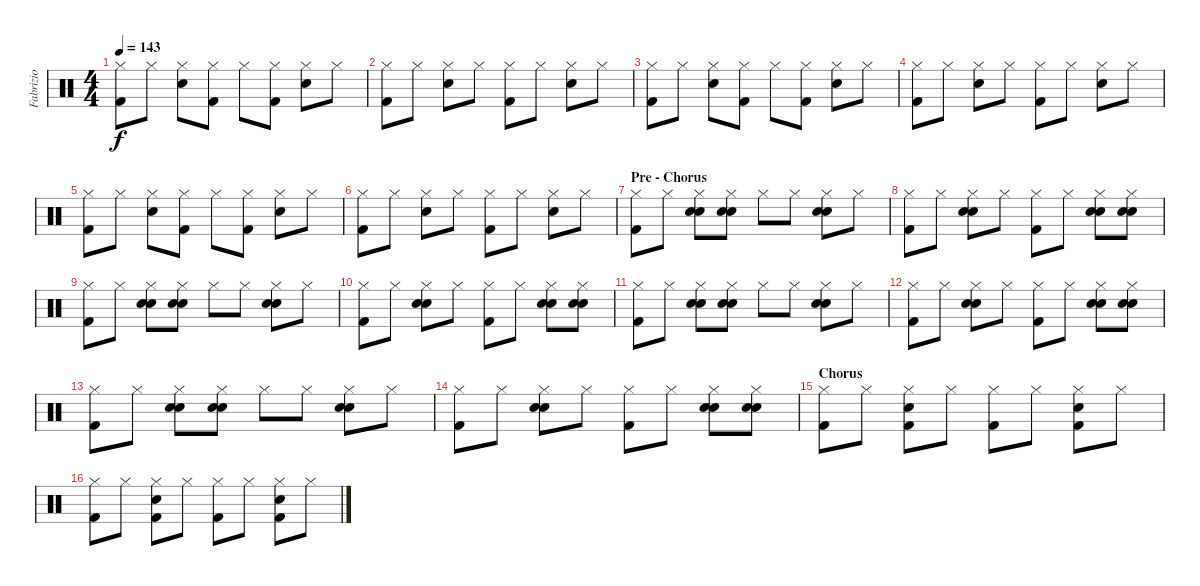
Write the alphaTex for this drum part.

\track ("Fabrizio" "Fabrizio") {instrument percussion}
\staff {score}
\articulation defaults
\ts (4 4)
\tempo 143
\clef neutral
\ks c
("Hi-Hat (closed)" "Kick (hit) 2").8{dy f} "Hi-Hat (closed)".8 ("Hi-Hat (closed)" "Electric Snare (hit)").8 ("Hi-Hat (closed)" "Kick (hit) 2").8 "Hi-Hat (closed)".8 ("Hi-Hat (closed)" "Kick (hit) 2").8 ("Hi-Hat (closed)" "Electric Snare (hit)").8 "Hi-Hat (closed)".8 |
("Hi-Hat (closed)" "Kick (hit) 2").8 "Hi-Hat (closed)".8 ("Hi-Hat (closed)" "Electric Snare (hit)").8 "Hi-Hat (closed)".8 ("Hi-Hat (closed)" "Kick (hit) 2").8 "Hi-Hat (closed)".8 ("Hi-Hat (closed)" "Electric Snare (hit)").8 "Hi-Hat (closed)".8 |
("Hi-Hat (closed)" "Kick (hit) 2").8 "Hi-Hat (closed)".8 ("Hi-Hat (closed)" "Electric Snare (hit)").8 ("Hi-Hat (closed)" "Kick (hit) 2").8 "Hi-Hat (closed)".8 ("Hi-Hat (closed)" "Kick (hit) 2").8 ("Hi-Hat (closed)" "Electric Snare (hit)").8 "Hi-Hat (closed)".8 |
("Hi-Hat (closed)" "Kick (hit) 2").8 "Hi-Hat (closed)".8 ("Hi-Hat (closed)" "Electric Snare (hit)").8 "Hi-Hat (closed)".8 ("Hi-Hat (closed)" "Kick (hit) 2").8 "Hi-Hat (closed)".8 ("Hi-Hat (closed)" "Electric Snare (hit)").8 "Hi-Hat (closed)".8 |
("Hi-Hat (closed)" "Kick (hit) 2").8 "Hi-Hat (closed)".8 ("Hi-Hat (closed)" "Electric Snare (hit)").8 ("Hi-Hat (closed)" "Kick (hit) 2").8 "Hi-Hat (closed)".8 ("Hi-Hat (closed)" "Kick (hit) 2").8 ("Hi-Hat (closed)" "Electric Snare (hit)").8 "Hi-Hat (closed)".8 |
("Hi-Hat (closed)" "Kick (hit) 2").8 "Hi-Hat (closed)".8 ("Hi-Hat (closed)" "Electric Snare (hit)").8 "Hi-Hat (closed)".8 ("Hi-Hat (closed)" "Kick (hit) 2").8 "Hi-Hat (closed)".8 ("Hi-Hat (closed)" "Electric Snare (hit)").8 "Hi-Hat (closed)".8 |
\section ("" "Pre - Chorus")
("Hi-Hat (closed)" "Kick (hit) 2").8 "Hi-Hat (closed)".8 ("Hi-Hat (closed)" "Electric Snare (hit)" "Hand Clap (hit)").8 ("Hi-Hat (closed)" "Electric Snare (hit)" "Hand Clap (hit)").8 "Hi-Hat (closed)".8 "Hi-Hat (closed)".8 ("Hi-Hat (closed)" "Electric Snare (hit)" "Hand Clap (hit)").8 "Hi-Hat (closed)".8 |
("Hi-Hat (closed)" "Kick (hit) 2").8 "Hi-Hat (closed)".8 ("Hi-Hat (closed)" "Electric Snare (hit)" "Hand Clap (hit)").8 "Hi-Hat (closed)".8 ("Hi-Hat (closed)" "Kick (hit) 2").8 "Hi-Hat (closed)".8 ("Hi-Hat (closed)" "Electric Snare (hit)" "Hand Clap (hit)").8 ("Hi-Hat (closed)" "Electric Snare (hit)" "Hand Clap (hit)").8 |
("Hi-Hat (closed)" "Kick (hit) 2").8 "Hi-Hat (closed)".8 ("Hi-Hat (closed)" "Electric Snare (hit)" "Hand Clap (hit)").8 ("Hi-Hat (closed)" "Electric Snare (hit)" "Hand Clap (hit)").8 "Hi-Hat (closed)".8 "Hi-Hat (closed)".8 ("Hi-Hat (closed)" "Electric Snare (hit)" "Hand Clap (hit)").8 "Hi-Hat (closed)".8 |
("Hi-Hat (closed)" "Kick (hit) 2").8 "Hi-Hat (closed)".8 ("Hi-Hat (closed)" "Electric Snare (hit)" "Hand Clap (hit)").8 "Hi-Hat (closed)".8 ("Hi-Hat (closed)" "Kick (hit) 2").8 "Hi-Hat (closed)".8 ("Hi-Hat (closed)" "Electric Snare (hit)" "Hand Clap (hit)").8 ("Hi-Hat (closed)" "Electric Snare (hit)" "Hand Clap (hit)").8 |
("Hi-Hat (closed)" "Kick (hit) 2").8 "Hi-Hat (closed)".8 ("Hi-Hat (closed)" "Electric Snare (hit)" "Hand Clap (hit)").8 ("Hi-Hat (closed)" "Electric Snare (hit)" "Hand Clap (hit)").8 "Hi-Hat (closed)".8 "Hi-Hat (closed)".8 ("Hi-Hat (closed)" "Electric Snare (hit)" "Hand Clap (hit)").8 "Hi-Hat (closed)".8 |
("Hi-Hat (closed)" "Kick (hit) 2").8 "Hi-Hat (closed)".8 ("Hi-Hat (closed)" "Electric Snare (hit)" "Hand Clap (hit)").8 "Hi-Hat (closed)".8 ("Hi-Hat (closed)" "Kick (hit) 2").8 "Hi-Hat (closed)".8 ("Hi-Hat (closed)" "Electric Snare (hit)" "Hand Clap (hit)").8 ("Hi-Hat (closed)" "Electric Snare (hit)" "Hand Clap (hit)").8 |
("Hi-Hat (closed)" "Kick (hit) 2").8 "Hi-Hat (closed)".8 ("Hi-Hat (closed)" "Electric Snare (hit)" "Hand Clap (hit)").8 ("Hi-Hat (closed)" "Electric Snare (hit)" "Hand Clap (hit)").8 "Hi-Hat (closed)".8 "Hi-Hat (closed)".8 ("Hi-Hat (closed)" "Electric Snare (hit)" "Hand Clap (hit)").8 "Hi-Hat (closed)".8 |
("Hi-Hat (closed)" "Kick (hit) 2").8 "Hi-Hat (closed)".8 ("Hi-Hat (closed)" "Electric Snare (hit)" "Hand Clap (hit)").8 "Hi-Hat (closed)".8 ("Hi-Hat (closed)" "Kick (hit) 2").8 "Hi-Hat (closed)".8 ("Hi-Hat (closed)" "Electric Snare (hit)" "Hand Clap (hit)").8 ("Hi-Hat (closed)" "Electric Snare (hit)" "Hand Clap (hit)").8 |
\section ("" "Chorus")
("Hi-Hat (closed)" "Kick (hit) 2").8 "Hi-Hat (closed)".8 ("Hi-Hat (closed)" "Electric Snare (hit)" "Kick (hit) 2").8 "Hi-Hat (closed)".8 ("Hi-Hat (closed)" "Kick (hit) 2").8 "Hi-Hat (closed)".8 ("Hi-Hat (closed)" "Electric Snare (hit)" "Kick (hit) 2").8 "Hi-Hat (closed)".8 |
("Hi-Hat (closed)" "Kick (hit) 2").8 "Hi-Hat (closed)".8 ("Hi-Hat (closed)" "Electric Snare (hit)" "Kick (hit) 2").8 "Hi-Hat (closed)".8 ("Hi-Hat (closed)" "Kick (hit) 2").8 "Hi-Hat (closed)".8 ("Hi-Hat (closed)" "Electric Snare (hit)" "Kick (hit) 2").8 "Hi-Hat (closed)".8
